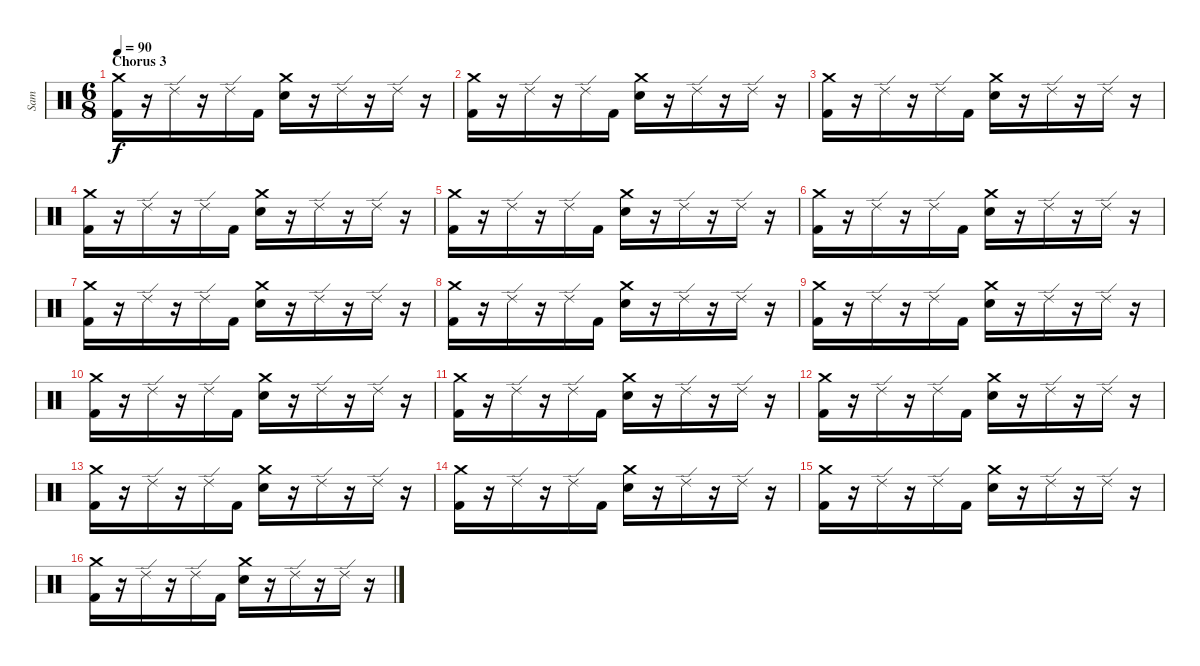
\track ("Sam" "Sam") {instrument percussion}
\staff {score}
\articulation defaults
\ts (6 8)
\section ("" "Chorus 3")
\tempo 90
\clef neutral
\ks c
("Crash medium (hit)" "Kick (hit) 2").16{dy f} r.16 "Ride (edge) 2".16 r.16 "Ride (edge) 2".16 "Kick (hit) 2".16 ("Crash medium (hit)" "Snare (hit) 2").16 r.16 "Ride (edge) 2".16 r.16 "Ride (edge) 2".16 r.16 |
("Crash medium (hit)" "Kick (hit) 2").16 r.16 "Ride (edge) 2".16 r.16 "Ride (edge) 2".16 "Kick (hit) 2".16 ("Crash medium (hit)" "Snare (hit) 2").16 r.16 "Ride (edge) 2".16 r.16 "Ride (edge) 2".16 r.16 |
("Crash medium (hit)" "Kick (hit) 2").16 r.16 "Ride (edge) 2".16 r.16 "Ride (edge) 2".16 "Kick (hit) 2".16 ("Crash medium (hit)" "Snare (hit) 2").16 r.16 "Ride (edge) 2".16 r.16 "Ride (edge) 2".16 r.16 |
("Crash medium (hit)" "Kick (hit) 2").16 r.16 "Ride (edge) 2".16 r.16 "Ride (edge) 2".16 "Kick (hit) 2".16 ("Crash medium (hit)" "Snare (hit) 2").16 r.16 "Ride (edge) 2".16 r.16 "Ride (edge) 2".16 r.16 |
("Crash medium (hit)" "Kick (hit) 2").16 r.16 "Ride (edge) 2".16 r.16 "Ride (edge) 2".16 "Kick (hit) 2".16 ("Crash medium (hit)" "Snare (hit) 2").16 r.16 "Ride (edge) 2".16 r.16 "Ride (edge) 2".16 r.16 |
("Crash medium (hit)" "Kick (hit) 2").16 r.16 "Ride (edge) 2".16 r.16 "Ride (edge) 2".16 "Kick (hit) 2".16 ("Crash medium (hit)" "Snare (hit) 2").16 r.16 "Ride (edge) 2".16 r.16 "Ride (edge) 2".16 r.16 |
("Crash medium (hit)" "Kick (hit) 2").16 r.16 "Ride (edge) 2".16 r.16 "Ride (edge) 2".16 "Kick (hit) 2".16 ("Crash medium (hit)" "Snare (hit) 2").16 r.16 "Ride (edge) 2".16 r.16 "Ride (edge) 2".16 r.16 |
("Crash medium (hit)" "Kick (hit) 2").16 r.16 "Ride (edge) 2".16 r.16 "Ride (edge) 2".16 "Kick (hit) 2".16 ("Crash medium (hit)" "Snare (hit) 2").16 r.16 "Ride (edge) 2".16 r.16 "Ride (edge) 2".16 r.16 |
("Crash medium (hit)" "Kick (hit) 2").16 r.16 "Ride (edge) 2".16 r.16 "Ride (edge) 2".16 "Kick (hit) 2".16 ("Crash medium (hit)" "Snare (hit) 2").16 r.16 "Ride (edge) 2".16 r.16 "Ride (edge) 2".16 r.16 |
("Crash medium (hit)" "Kick (hit) 2").16 r.16 "Ride (edge) 2".16 r.16 "Ride (edge) 2".16 "Kick (hit) 2".16 ("Crash medium (hit)" "Snare (hit) 2").16 r.16 "Ride (edge) 2".16 r.16 "Ride (edge) 2".16 r.16 |
("Crash medium (hit)" "Kick (hit) 2").16 r.16 "Ride (edge) 2".16 r.16 "Ride (edge) 2".16 "Kick (hit) 2".16 ("Crash medium (hit)" "Snare (hit) 2").16 r.16 "Ride (edge) 2".16 r.16 "Ride (edge) 2".16 r.16 |
("Crash medium (hit)" "Kick (hit) 2").16 r.16 "Ride (edge) 2".16 r.16 "Ride (edge) 2".16 "Kick (hit) 2".16 ("Crash medium (hit)" "Snare (hit) 2").16 r.16 "Ride (edge) 2".16 r.16 "Ride (edge) 2".16 r.16 |
("Crash medium (hit)" "Kick (hit) 2").16 r.16 "Ride (edge) 2".16 r.16 "Ride (edge) 2".16 "Kick (hit) 2".16 ("Crash medium (hit)" "Snare (hit) 2").16 r.16 "Ride (edge) 2".16 r.16 "Ride (edge) 2".16 r.16 |
("Crash medium (hit)" "Kick (hit) 2").16 r.16 "Ride (edge) 2".16 r.16 "Ride (edge) 2".16 "Kick (hit) 2".16 ("Crash medium (hit)" "Snare (hit) 2").16 r.16 "Ride (edge) 2".16 r.16 "Ride (edge) 2".16 r.16 |
("Crash medium (hit)" "Kick (hit) 2").16 r.16 "Ride (edge) 2".16 r.16 "Ride (edge) 2".16 "Kick (hit) 2".16 ("Crash medium (hit)" "Snare (hit) 2").16 r.16 "Ride (edge) 2".16 r.16 "Ride (edge) 2".16 r.16 |
("Crash medium (hit)" "Kick (hit) 2").16 r.16 "Ride (edge) 2".16 r.16 "Ride (edge) 2".16 "Kick (hit) 2".16 ("Crash medium (hit)" "Snare (hit) 2").16 r.16 "Ride (edge) 2".16 r.16 "Ride (edge) 2".16 r.16
